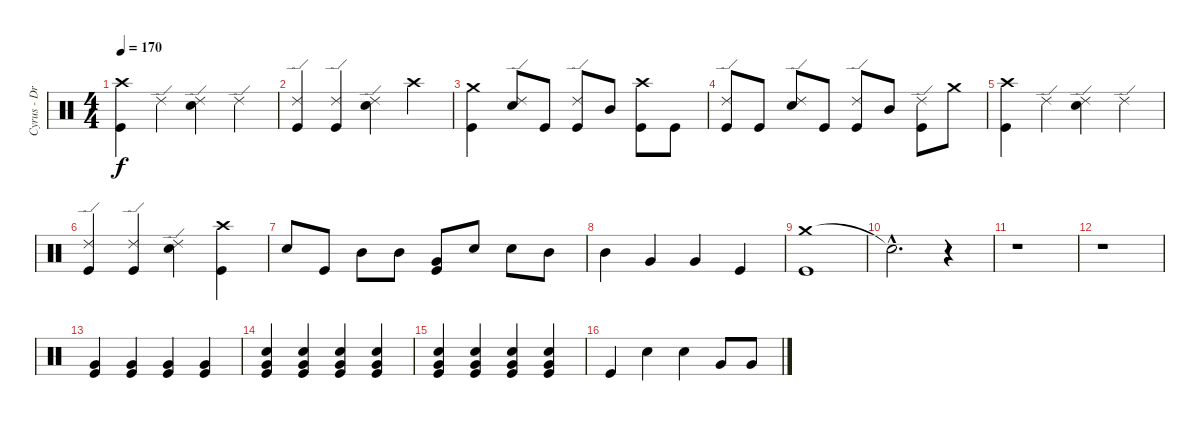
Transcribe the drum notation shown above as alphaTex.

\track ("Cyrus - Drums" "Cyrus - Dr") {instrument percussion}
\staff {score}
\articulation defaults
\ts (4 4)
\tempo 170
\clef neutral
\ks c
("Crash high (hit)" "Kick (hit)").4{dy f} "Ride (edge) 2".4 ("Ride (edge) 2" "Electric Snare (hit)").4 "Ride (edge) 2".4 |
("Ride (edge) 2" "Kick (hit)").4 ("Ride (edge) 2" "Kick (hit)").4 ("Ride (edge) 2" "Electric Snare (hit)").4 "Crash high (hit)".4 |
("Crash medium (hit)" "Kick (hit)").4 ("Ride (edge) 2" "Electric Snare (hit)").8 "Kick (hit)".8 ("Ride (edge) 2" "Kick (hit)").8 "Mid Tom (hit)".8 ("Crash high (hit)" "Kick (hit)").8 "Kick (hit)".8 |
("Ride (edge) 2" "Kick (hit)").8 "Kick (hit)".8 ("Ride (edge) 2" "Electric Snare (hit)").8 "Kick (hit)".8 ("Ride (edge) 2" "Kick (hit)").8 "Mid Tom (hit)".8 ("Ride (edge) 2" "Kick (hit)").8 "Crash medium (hit)".8 |
("Crash high (hit)" "Kick (hit)").4 "Ride (edge) 2".4 ("Ride (edge) 2" "Electric Snare (hit)").4 "Ride (edge) 2".4 |
("Ride (edge) 2" "Kick (hit)").4 ("Ride (edge) 2" "Kick (hit)").4 ("Ride (edge) 2" "Electric Snare (hit)").4 ("Crash high (hit)" "Kick (hit)").4 |
"Electric Snare (hit)".8 "Kick (hit)".8 "Mid Tom (hit)".8 "Mid Tom (hit)".8 ("Very Low Tom (hit)" "Kick (hit)").8 "Electric Snare (hit)".8 "Electric Snare (hit)".8 "Mid Tom (hit)".8 |
"Mid Tom (hit)".4 "Very Low Tom (hit)".4 "Very Low Tom (hit)".4 "Kick (hit)".4 |
("Crash medium (hit)" "Kick (hit)").1 |
"Snare (hit)"{hac t}.2{d} r.4 |
r.1 |
r.1 |
("Very Low Tom (hit)" "Kick (hit)").4 ("Very Low Tom (hit)" "Kick (hit)").4 ("Very Low Tom (hit)" "Kick (hit)").4 ("Very Low Tom (hit)" "Kick (hit)").4 |
("Electric Snare (hit)" "Very Low Tom (hit)" "Kick (hit)").4 ("Electric Snare (hit)" "Very Low Tom (hit)" "Kick (hit)").4 ("Electric Snare (hit)" "Very Low Tom (hit)" "Kick (hit)").4 ("Electric Snare (hit)" "Very Low Tom (hit)" "Kick (hit)").4 |
("Electric Snare (hit)" "Very Low Tom (hit)" "Kick (hit)").4 ("Electric Snare (hit)" "Very Low Tom (hit)" "Kick (hit)").4 ("Electric Snare (hit)" "Very Low Tom (hit)" "Kick (hit)").4 ("Electric Snare (hit)" "Very Low Tom (hit)" "Kick (hit)").4 |
"Kick (hit)".4 "Electric Snare (hit)".4 "Electric Snare (hit)".4 "Very Low Tom (hit)".8 "Very Low Tom (hit)".8
